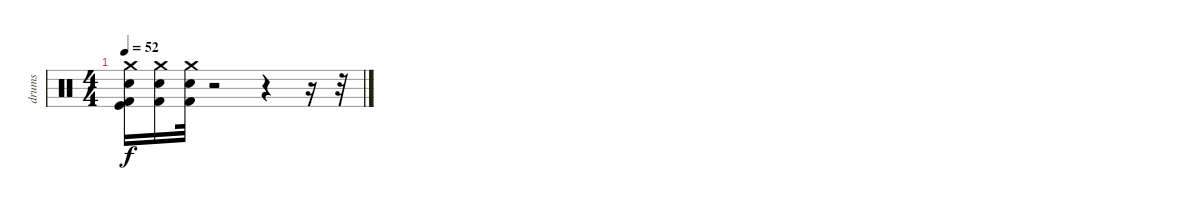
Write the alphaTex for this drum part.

\track ("drums" "drums") {instrument percussion}
\staff {score}
\articulation defaults
\ts (4 4)
\tempo 52
\clef neutral
\ks c
("Kick (hit) 2" "Kick (hit)" "Snare (hit) 2" "Crash medium (hit)").16{dy f} ("Snare (hit) 2" "Kick (hit) 2" "Crash medium (hit)").16 ("Snare (hit) 2" "Kick (hit) 2" "Crash medium (hit)").32 r.2 r.4 r.16 r.32
